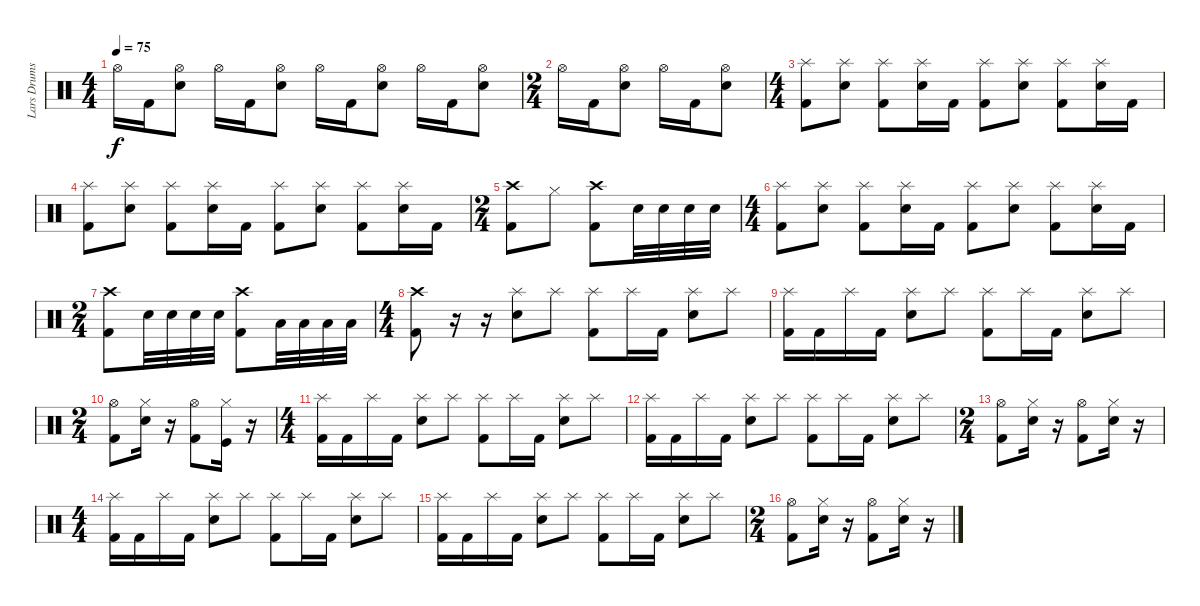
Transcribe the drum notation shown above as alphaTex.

\track ("Lars Drums" "Lars Drums") {instrument percussion}
\staff {score}
\articulation defaults
\ts (4 4)
\tempo 75
\clef neutral
\ks c "Hi-Hat (open)".16{dy f} "Kick (hit) 2".16
("Hi-Hat (open)" "Snare (hit) 2").8 "Hi-Hat (open)".16 "Kick (hit) 2".16 ("Hi-Hat (open)" "Snare (hit) 2").8 "Hi-Hat (open)".16 "Kick (hit) 2".16 ("Hi-Hat (open)" "Snare (hit) 2").8 "Hi-Hat (open)".16 "Kick (hit) 2".16 ("Hi-Hat (open)" "Snare (hit) 2").8 |
\ts (2 4)
"Hi-Hat (open)".16 "Kick (hit) 2".16 ("Hi-Hat (open)" "Snare (hit) 2").8 "Hi-Hat (open)".16 "Kick (hit) 2".16 ("Hi-Hat (open)" "Snare (hit) 2").8 |
\ts (4 4)
("Splash (hit)" "Kick (hit) 2").8 ("Splash (hit)" "Snare (hit) 2").8 ("Splash (hit)" "Kick (hit) 2").8 ("Splash (hit)" "Snare (hit) 2").16 "Kick (hit) 2".16 ("Splash (hit)" "Kick (hit) 2").8 ("Splash (hit)" "Snare (hit) 2").8 ("Splash (hit)" "Kick (hit) 2").8 ("Splash (hit)" "Snare (hit) 2").16 "Kick (hit) 2".16 |
("Splash (hit)" "Kick (hit) 2").8 ("Splash (hit)" "Snare (hit) 2").8 ("Splash (hit)" "Kick (hit) 2").8 ("Splash (hit)" "Snare (hit) 2").16 "Kick (hit) 2".16 ("Splash (hit)" "Kick (hit) 2").8 ("Splash (hit)" "Snare (hit) 2").8 ("Splash (hit)" "Kick (hit) 2").8 ("Splash (hit)" "Snare (hit) 2").16 "Kick (hit) 2".16 |
\ts (2 4)
("Crash high (hit)" "Kick (hit) 2").8 "Hi-Hat (closed)".8 ("Crash high (hit)" "Kick (hit) 2").8 "Snare (hit) 2".32 "Snare (hit) 2".32 "Snare (hit) 2".32 "Snare (hit) 2".32 |
\ts (4 4)
("Splash (hit)" "Kick (hit) 2").8 ("Splash (hit)" "Snare (hit) 2").8 ("Splash (hit)" "Kick (hit) 2").8 ("Splash (hit)" "Snare (hit) 2").16 "Kick (hit) 2".16 ("Splash (hit)" "Kick (hit) 2").8 ("Splash (hit)" "Snare (hit) 2").8 ("Splash (hit)" "Kick (hit) 2").8 ("Splash (hit)" "Snare (hit) 2").16 "Kick (hit) 2".16 |
\ts (2 4)
("Crash high (hit)" "Kick (hit) 2").8 "Snare (hit) 2".32 "Snare (hit) 2".32 "Snare (hit) 2".32 "Snare (hit) 2".32 ("Crash high (hit)" "Kick (hit) 2").8 "Low Floor Tom (hit)".32 "Low Floor Tom (hit)".32 "Low Floor Tom (hit)".32 "Low Floor Tom (hit)".32 |
\ts (4 4)
("Crash high (hit)" "Kick (hit) 2").8 r.16 r.16 ("Splash (hit)" "Snare (hit) 2").8 "Splash (hit)".8 ("Splash (hit)" "Kick (hit) 2").8 "Splash (hit)".16 "Kick (hit) 2".16 ("Splash (hit)" "Snare (hit) 2").8 "Splash (hit)".8 |
("Splash (hit)" "Kick (hit) 2").16 "Kick (hit) 2".16 "Splash (hit)".16 "Kick (hit) 2".16 ("Splash (hit)" "Snare (hit) 2").8 "Splash (hit)".8 ("Splash (hit)" "Kick (hit) 2").8 "Splash (hit)".16 "Kick (hit) 2".16 ("Splash (hit)" "Snare (hit) 2").8 "Splash (hit)".8 |
\ts (2 4)
("Hi-Hat (open)" "Kick (hit) 2").8 ("Hi-Hat (closed)" "Snare (hit) 2").16 r.16 ("Hi-Hat (open)" "Kick (hit) 2").8 ("Hi-Hat (closed)" "Kick (hit)").16 r.16 |
\ts (4 4)
("Splash (hit)" "Kick (hit) 2").16 "Kick (hit) 2".16 "Splash (hit)".16 "Kick (hit) 2".16 ("Splash (hit)" "Snare (hit) 2").8 "Splash (hit)".8 ("Splash (hit)" "Kick (hit) 2").8 "Splash (hit)".16 "Kick (hit) 2".16 ("Splash (hit)" "Snare (hit) 2").8 "Splash (hit)".8 |
("Splash (hit)" "Kick (hit) 2").16 "Kick (hit) 2".16 "Splash (hit)".16 "Kick (hit) 2".16 ("Splash (hit)" "Snare (hit) 2").8 "Splash (hit)".8 ("Splash (hit)" "Kick (hit) 2").8 "Splash (hit)".16 "Kick (hit) 2".16 ("Splash (hit)" "Snare (hit) 2").8 "Splash (hit)".8 |
\ts (2 4)
("Hi-Hat (open)" "Kick (hit) 2").8 ("Hi-Hat (closed)" "Snare (hit) 2").16 r.16 ("Hi-Hat (open)" "Kick (hit) 2").8 ("Hi-Hat (closed)" "Snare (hit) 2").16 r.16 |
\ts (4 4)
("Splash (hit)" "Kick (hit) 2").16 "Kick (hit) 2".16 "Splash (hit)".16 "Kick (hit) 2".16 ("Splash (hit)" "Snare (hit) 2").8 "Splash (hit)".8 ("Splash (hit)" "Kick (hit) 2").8 "Splash (hit)".16 "Kick (hit) 2".16 ("Splash (hit)" "Snare (hit) 2").8 "Splash (hit)".8 |
("Splash (hit)" "Kick (hit) 2").16 "Kick (hit) 2".16 "Splash (hit)".16 "Kick (hit) 2".16 ("Splash (hit)" "Snare (hit) 2").8 "Splash (hit)".8 ("Splash (hit)" "Kick (hit) 2").8 "Splash (hit)".16 "Kick (hit) 2".16 ("Splash (hit)" "Snare (hit) 2").8 "Splash (hit)".8 |
\ts (2 4)
("Hi-Hat (open)" "Kick (hit) 2").8 ("Hi-Hat (closed)" "Snare (hit) 2").16 r.16 ("Hi-Hat (open)" "Kick (hit) 2").8 ("Hi-Hat (closed)" "Snare (hit) 2").16 r.16
